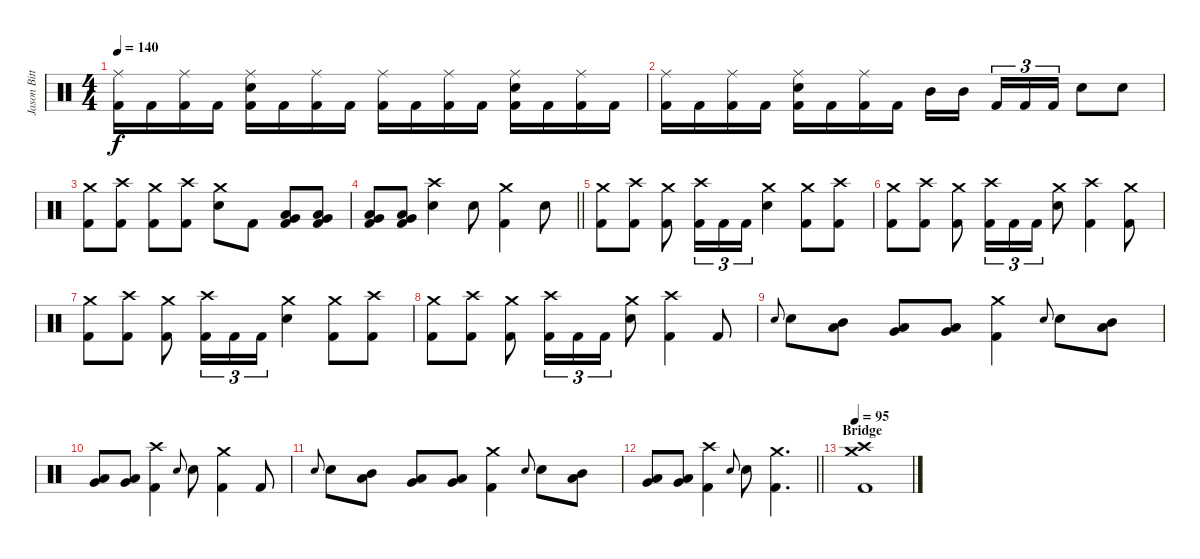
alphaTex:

\track ("Jason Bittner" "Jason Bitt") {instrument percussion}
\staff {score}
\articulation defaults
\ts (4 4)
\tempo 140
\clef neutral
\ks c
("Ride (middle)" "Kick (hit) 2").16{dy f} "Kick (hit) 2".16 ("Ride (middle)" "Kick (hit) 2").16 "Kick (hit) 2".16 ("Ride (middle)" "Electric Snare (hit)" "Kick (hit) 2").16 "Kick (hit) 2".16 ("Ride (middle)" "Kick (hit) 2").16 "Kick (hit) 2".16 ("Ride (middle)" "Kick (hit) 2").16 "Kick (hit) 2".16 ("Ride (middle)" "Kick (hit) 2").16 "Kick (hit) 2".16 ("Ride (middle)" "Electric Snare (hit)" "Kick (hit) 2").16 "Kick (hit) 2".16 ("Ride (middle)" "Kick (hit) 2").16 "Kick (hit) 2".16 |
("Ride (middle)" "Kick (hit) 2").16 "Kick (hit) 2".16 ("Ride (middle)" "Kick (hit) 2").16 "Kick (hit) 2".16 ("Ride (middle)" "Electric Snare (hit)" "Kick (hit) 2").16 "Kick (hit) 2".16 ("Ride (middle)" "Kick (hit) 2").16 "Kick (hit) 2".16 "Mid Tom (hit)".16 "Mid Tom (hit)".16{beam splitsecondary} "Kick (hit) 2".16{tu (3 2)} "Kick (hit) 2".16{tu (3 2)} "Kick (hit) 2".16{tu (3 2)} "Electric Snare (hit)".8 "Electric Snare (hit)".8 |
("Crash medium (hit)" "Kick (hit) 2").8 ("Crash high (hit)" "Kick (hit) 2").8 ("Crash medium (hit)" "Kick (hit) 2").8 ("Crash high (hit)" "Kick (hit) 2").8 ("Crash medium (hit)" "Electric Snare (hit)").8 "Kick (hit) 2".8 ("Low Tom (hit)" "Very Low Tom (hit)" "Kick (hit) 2").8 ("Low Tom (hit)" "Very Low Tom (hit)" "Kick (hit) 2").8 |
\barLineRight lightlight
("Low Tom (hit)" "Very Low Tom (hit)" "Kick (hit) 2").8 ("Low Tom (hit)" "Very Low Tom (hit)" "Kick (hit) 2").8 ("Crash high (hit)" "Electric Snare (hit)").4 "Electric Snare (hit)".8 ("Crash medium (hit)" "Kick (hit) 2").4 "Electric Snare (hit)".8 |
("Crash medium (hit)" "Kick (hit) 2").8 ("Crash high (hit)" "Kick (hit) 2").8 ("Crash medium (hit)" "Kick (hit) 2").8 ("Crash high (hit)" "Kick (hit) 2").16{tu (3 2)} "Kick (hit) 2".16{tu (3 2)} "Kick (hit) 2".16{tu (3 2)} ("Crash medium (hit)" "Electric Snare (hit)").4 ("Crash medium (hit)" "Kick (hit) 2").8 ("Crash high (hit)" "Kick (hit) 2").8 |
("Crash medium (hit)" "Kick (hit) 2").8 ("Crash high (hit)" "Kick (hit) 2").8 ("Crash medium (hit)" "Kick (hit) 2").8 ("Crash high (hit)" "Kick (hit) 2").16{tu (3 2)} "Kick (hit) 2".16{tu (3 2)} "Kick (hit) 2".16{tu (3 2)} ("Crash medium (hit)" "Electric Snare (hit)").8 ("Crash high (hit)" "Kick (hit) 2").4 ("Crash medium (hit)" "Kick (hit) 2").8 |
("Crash medium (hit)" "Kick (hit) 2").8 ("Crash high (hit)" "Kick (hit) 2").8 ("Crash medium (hit)" "Kick (hit) 2").8 ("Crash high (hit)" "Kick (hit) 2").16{tu (3 2)} "Kick (hit) 2".16{tu (3 2)} "Kick (hit) 2".16{tu (3 2)} ("Crash medium (hit)" "Electric Snare (hit)").4 ("Crash medium (hit)" "Kick (hit) 2").8 ("Crash high (hit)" "Kick (hit) 2").8 |
("Crash medium (hit)" "Kick (hit) 2").8 ("Crash high (hit)" "Kick (hit) 2").8 ("Crash medium (hit)" "Kick (hit) 2").8 ("Crash high (hit)" "Kick (hit) 2").16{tu (3 2)} "Kick (hit) 2".16{tu (3 2)} "Kick (hit) 2".16{tu (3 2)} ("Crash medium (hit)" "Electric Snare (hit)").8 ("Crash high (hit)" "Kick (hit) 2").4 "Kick (hit) 2".8 |
"Electric Snare (hit)".8{gr onbeat} "Electric Snare (hit)".8 ("Mid Tom (hit)" "Low Tom (hit)").8 ("Low Tom (hit)" "Very Low Tom (hit)").8 ("Very Low Tom (hit)" "Low Floor Tom (hit)").8 ("Crash medium (hit)" "Kick (hit) 2").4 "Electric Snare (hit)".8{gr onbeat} "Electric Snare (hit)".8 ("Mid Tom (hit)" "Low Tom (hit)").8 |
("Low Tom (hit)" "Very Low Tom (hit)").8 ("Very Low Tom (hit)" "Low Floor Tom (hit)").8 ("Crash high (hit)" "Kick (hit) 2").4 "Electric Snare (hit)".8{gr onbeat} "Electric Snare (hit)".8 ("Crash medium (hit)" "Kick (hit) 2").4 "Kick (hit) 2".8 |
"Electric Snare (hit)".8{gr onbeat} "Electric Snare (hit)".8 ("Mid Tom (hit)" "Low Tom (hit)").8 ("Low Tom (hit)" "Very Low Tom (hit)").8 ("Very Low Tom (hit)" "Low Floor Tom (hit)").8 ("Crash medium (hit)" "Kick (hit) 2").4 "Electric Snare (hit)".8{gr onbeat} "Electric Snare (hit)".8 ("Mid Tom (hit)" "Low Tom (hit)").8 |
\barLineRight lightlight
("Low Tom (hit)" "Very Low Tom (hit)").8 ("Very Low Tom (hit)" "Low Floor Tom (hit)").8 ("Crash high (hit)" "Kick (hit) 2").4 "Electric Snare (hit)".8{gr onbeat} "Electric Snare (hit)".8 ("Crash medium (hit)" "Kick (hit) 2").4{d} |
\section ("" "Bridge")
\tempo 95
("Crash medium (hit)" "Crash high (hit)" "Kick (hit) 2").1
